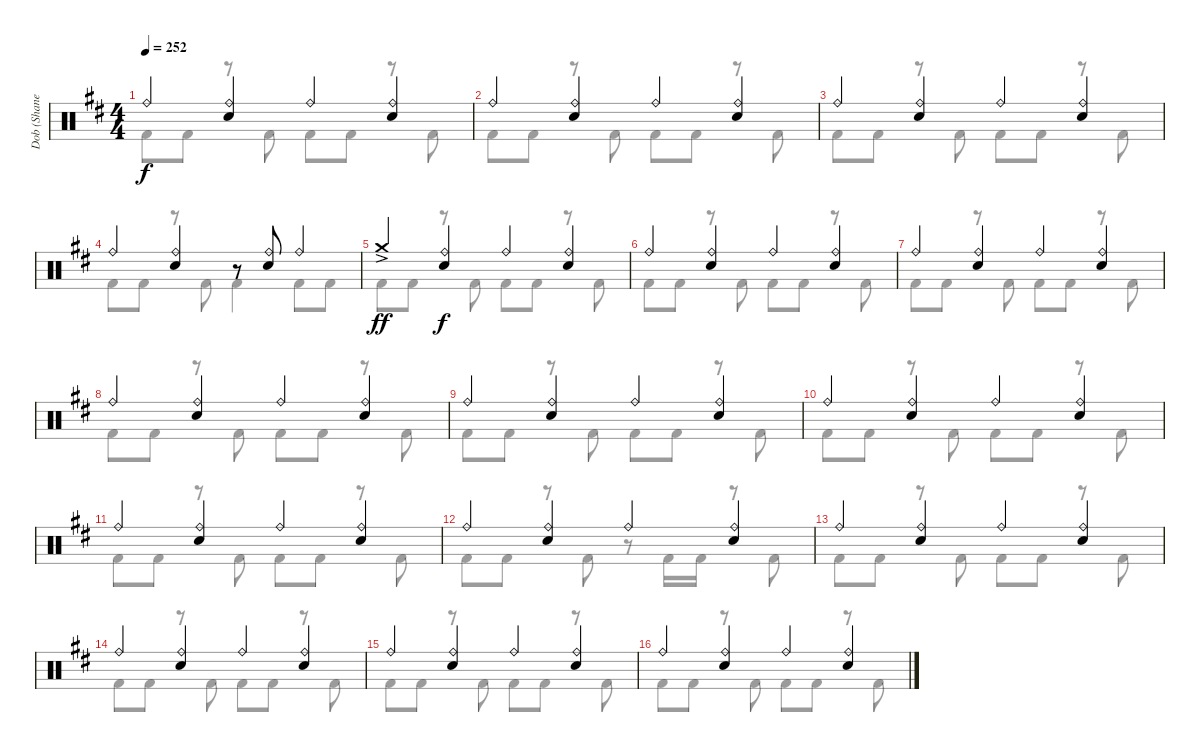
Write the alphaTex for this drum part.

\track ("Dob (Shane Gaalaas)" "Dob (Shane") {instrument percussion}
\staff {score}
\articulation defaults
\voice
\ts (4 4)
\tempo 252
\clef neutral
\ks d "Ride (bell)".4{dy f}
("Ride (bell)" "Electric Snare (hit)").4 "Ride (bell)".4 ("Ride (bell)" "Electric Snare (hit)").4 |
"Ride (bell)".4 ("Ride (bell)" "Electric Snare (hit)").4 "Ride (bell)".4 ("Ride (bell)" "Electric Snare (hit)").4 |
"Ride (bell)".4 ("Ride (bell)" "Electric Snare (hit)").4 "Ride (bell)".4 ("Ride (bell)" "Electric Snare (hit)").4 |
"Ride (bell)".4 ("Ride (bell)" "Electric Snare (hit)").4 r.8 ("Ride (bell)" "Electric Snare (hit)").8 "Ride (bell)".4 |
"Crash medium (hit)"{ac}.4{dy ff} ("Ride (bell)" "Electric Snare (hit)").4{dy f} "Ride (bell)".4 ("Ride (bell)" "Electric Snare (hit)").4 |
"Ride (bell)".4 ("Ride (bell)" "Electric Snare (hit)").4 "Ride (bell)".4 ("Ride (bell)" "Electric Snare (hit)").4 |
"Ride (bell)".4 ("Ride (bell)" "Electric Snare (hit)").4 "Ride (bell)".4 ("Ride (bell)" "Electric Snare (hit)").4 |
"Ride (bell)".4 ("Ride (bell)" "Electric Snare (hit)").4 "Ride (bell)".4 ("Ride (bell)" "Electric Snare (hit)").4 |
"Ride (bell)".4 ("Ride (bell)" "Electric Snare (hit)").4 "Ride (bell)".4 ("Ride (bell)" "Electric Snare (hit)").4 |
"Ride (bell)".4 ("Ride (bell)" "Electric Snare (hit)").4 "Ride (bell)".4 ("Ride (bell)" "Electric Snare (hit)").4 |
"Ride (bell)".4 ("Ride (bell)" "Electric Snare (hit)").4 "Ride (bell)".4 ("Ride (bell)" "Electric Snare (hit)").4 |
"Ride (bell)".4 ("Ride (bell)" "Electric Snare (hit)").4 "Ride (bell)".4 ("Ride (bell)" "Electric Snare (hit)").4 |
"Ride (bell)".4 ("Ride (bell)" "Electric Snare (hit)").4 "Ride (bell)".4 ("Ride (bell)" "Electric Snare (hit)").4 |
"Ride (bell)".4 ("Ride (bell)" "Electric Snare (hit)").4 "Ride (bell)".4 ("Ride (bell)" "Electric Snare (hit)").4 |
"Ride (bell)".4 ("Ride (bell)" "Electric Snare (hit)").4 "Ride (bell)".4 ("Ride (bell)" "Electric Snare (hit)").4 |
"Ride (bell)".4 ("Ride (bell)" "Electric Snare (hit)").4 "Ride (bell)".4 ("Ride (bell)" "Electric Snare (hit)").4
\voice
\clef neutral
\ottava regular
\simile none
\ks d "Kick (hit) 2".8{dy f} "Kick (hit) 2".8
r.8 "Kick (hit) 2".8 "Kick (hit) 2".8 "Kick (hit) 2".8 r.8 "Kick (hit) 2".8 |
"Kick (hit) 2".8 "Kick (hit) 2".8 r.8 "Kick (hit) 2".8 "Kick (hit) 2".8 "Kick (hit) 2".8 r.8 "Kick (hit) 2".8 |
"Kick (hit) 2".8 "Kick (hit) 2".8 r.8 "Kick (hit) 2".8 "Kick (hit) 2".8 "Kick (hit) 2".8 r.8 "Kick (hit) 2".8 |
"Kick (hit) 2".8 "Kick (hit) 2".8 r.8 "Kick (hit) 2".8 "Kick (hit) 2".4 "Kick (hit) 2".8 "Kick (hit) 2".8 |
"Kick (hit) 2".8 "Kick (hit) 2".8 r.8 "Kick (hit) 2".8 "Kick (hit) 2".8 "Kick (hit) 2".8 r.8 "Kick (hit) 2".8 |
"Kick (hit) 2".8 "Kick (hit) 2".8 r.8 "Kick (hit) 2".8 "Kick (hit) 2".8 "Kick (hit) 2".8 r.8 "Kick (hit) 2".8 |
"Kick (hit) 2".8 "Kick (hit) 2".8 r.8 "Kick (hit) 2".8 "Kick (hit) 2".8 "Kick (hit) 2".8 r.8 "Kick (hit) 2".8 |
"Kick (hit) 2".8 "Kick (hit) 2".8 r.8 "Kick (hit) 2".8 "Kick (hit) 2".8 "Kick (hit) 2".8 r.8 "Kick (hit) 2".8 |
"Kick (hit) 2".8 "Kick (hit) 2".8 r.8 "Kick (hit) 2".8 "Kick (hit) 2".8 "Kick (hit) 2".8 r.8 "Kick (hit) 2".8 |
"Kick (hit) 2".8 "Kick (hit) 2".8 r.8 "Kick (hit) 2".8 "Kick (hit) 2".8 "Kick (hit) 2".8 r.8 "Kick (hit) 2".8 |
"Kick (hit) 2".8 "Kick (hit) 2".8 r.8 "Kick (hit) 2".8 "Kick (hit) 2".8 "Kick (hit) 2".8 r.8 "Kick (hit) 2".8 |
"Kick (hit) 2".8 "Kick (hit) 2".8 r.8 "Kick (hit) 2".8 r.8 "Kick (hit) 2".16 "Kick (hit) 2".16 r.8 "Kick (hit) 2".8 |
"Kick (hit) 2".8 "Kick (hit) 2".8 r.8 "Kick (hit) 2".8 "Kick (hit) 2".8 "Kick (hit) 2".8 r.8 "Kick (hit) 2".8 |
"Kick (hit) 2".8 "Kick (hit) 2".8 r.8 "Kick (hit) 2".8 "Kick (hit) 2".8 "Kick (hit) 2".8 r.8 "Kick (hit) 2".8 |
"Kick (hit) 2".8 "Kick (hit) 2".8 r.8 "Kick (hit) 2".8 "Kick (hit) 2".8 "Kick (hit) 2".8 r.8 "Kick (hit) 2".8 |
"Kick (hit) 2".8 "Kick (hit) 2".8 r.8 "Kick (hit) 2".8 "Kick (hit) 2".8 "Kick (hit) 2".8 r.8 "Kick (hit) 2".8
